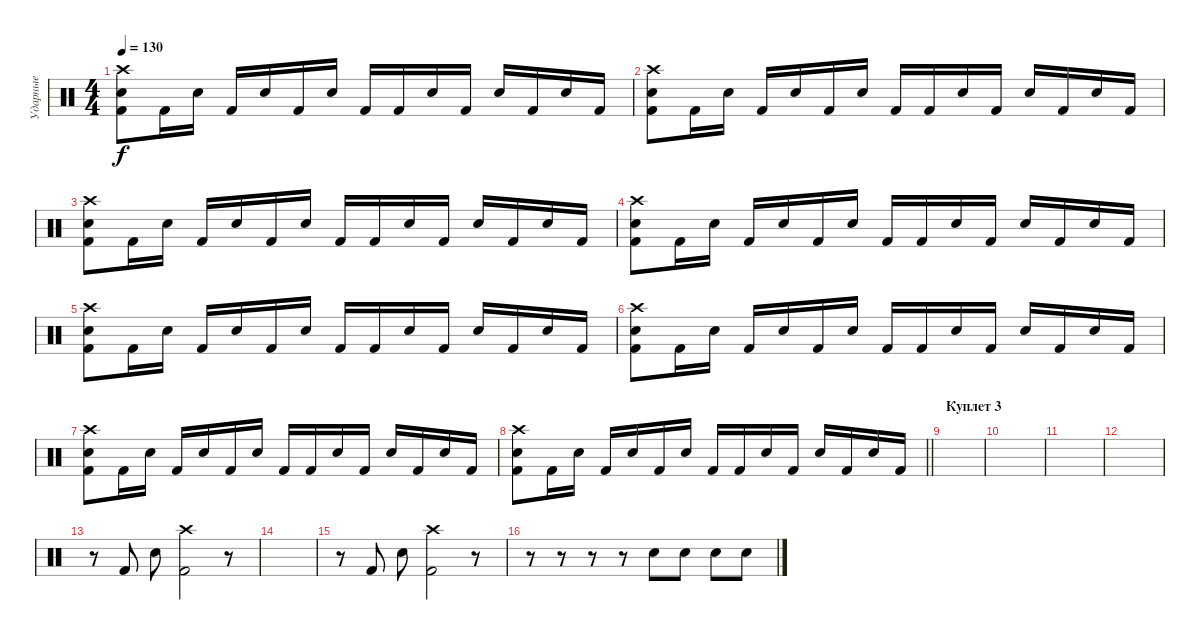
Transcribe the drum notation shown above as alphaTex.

\track ("Ударные" "Ударные") {instrument percussion}
\staff {score}
\articulation defaults
\ts (4 4)
\tempo 130
\clef neutral
\ks c
("Crash high (hit)" "Kick (hit) 2" "Snare (hit) 2").8{dy f} "Kick (hit) 2".16 "Snare (hit) 2".16 "Kick (hit) 2".16 "Snare (hit) 2".16 "Kick (hit) 2".16 "Snare (hit) 2".16 "Kick (hit) 2".16 "Kick (hit) 2".16 "Snare (hit) 2".16 "Kick (hit) 2".16 "Snare (hit) 2".16 "Kick (hit) 2".16 "Snare (hit) 2".16 "Kick (hit) 2".16 |
("Crash high (hit)" "Kick (hit) 2" "Snare (hit) 2").8 "Kick (hit) 2".16 "Snare (hit) 2".16 "Kick (hit) 2".16 "Snare (hit) 2".16 "Kick (hit) 2".16 "Snare (hit) 2".16 "Kick (hit) 2".16 "Kick (hit) 2".16 "Snare (hit) 2".16 "Kick (hit) 2".16 "Snare (hit) 2".16 "Kick (hit) 2".16 "Snare (hit) 2".16 "Kick (hit) 2".16 |
("Crash high (hit)" "Kick (hit) 2" "Snare (hit) 2").8 "Kick (hit) 2".16 "Snare (hit) 2".16 "Kick (hit) 2".16 "Snare (hit) 2".16 "Kick (hit) 2".16 "Snare (hit) 2".16 "Kick (hit) 2".16 "Kick (hit) 2".16 "Snare (hit) 2".16 "Kick (hit) 2".16 "Snare (hit) 2".16 "Kick (hit) 2".16 "Snare (hit) 2".16 "Kick (hit) 2".16 |
("Crash high (hit)" "Kick (hit) 2" "Snare (hit) 2").8 "Kick (hit) 2".16 "Snare (hit) 2".16 "Kick (hit) 2".16 "Snare (hit) 2".16 "Kick (hit) 2".16 "Snare (hit) 2".16 "Kick (hit) 2".16 "Kick (hit) 2".16 "Snare (hit) 2".16 "Kick (hit) 2".16 "Snare (hit) 2".16 "Kick (hit) 2".16 "Snare (hit) 2".16 "Kick (hit) 2".16 |
("Crash high (hit)" "Kick (hit) 2" "Snare (hit) 2").8 "Kick (hit) 2".16 "Snare (hit) 2".16 "Kick (hit) 2".16 "Snare (hit) 2".16 "Kick (hit) 2".16 "Snare (hit) 2".16 "Kick (hit) 2".16 "Kick (hit) 2".16 "Snare (hit) 2".16 "Kick (hit) 2".16 "Snare (hit) 2".16 "Kick (hit) 2".16 "Snare (hit) 2".16 "Kick (hit) 2".16 |
("Crash high (hit)" "Kick (hit) 2" "Snare (hit) 2").8 "Kick (hit) 2".16 "Snare (hit) 2".16 "Kick (hit) 2".16 "Snare (hit) 2".16 "Kick (hit) 2".16 "Snare (hit) 2".16 "Kick (hit) 2".16 "Kick (hit) 2".16 "Snare (hit) 2".16 "Kick (hit) 2".16 "Snare (hit) 2".16 "Kick (hit) 2".16 "Snare (hit) 2".16 "Kick (hit) 2".16 |
("Crash high (hit)" "Kick (hit) 2" "Snare (hit) 2").8 "Kick (hit) 2".16 "Snare (hit) 2".16 "Kick (hit) 2".16 "Snare (hit) 2".16 "Kick (hit) 2".16 "Snare (hit) 2".16 "Kick (hit) 2".16 "Kick (hit) 2".16 "Snare (hit) 2".16 "Kick (hit) 2".16 "Snare (hit) 2".16 "Kick (hit) 2".16 "Snare (hit) 2".16 "Kick (hit) 2".16 |
\barLineRight lightlight
("Crash high (hit)" "Kick (hit) 2" "Snare (hit) 2").8 "Kick (hit) 2".16 "Snare (hit) 2".16 "Kick (hit) 2".16 "Snare (hit) 2".16 "Kick (hit) 2".16 "Snare (hit) 2".16 "Kick (hit) 2".16 "Kick (hit) 2".16 "Snare (hit) 2".16 "Kick (hit) 2".16 "Snare (hit) 2".16 "Kick (hit) 2".16 "Snare (hit) 2".16 "Kick (hit) 2".16 |
\section ("" "Куплет 3")
|
|
|
|
r.8 "Kick (hit) 2".8 "Snare (hit) 2".8 ("Crash high (hit)" "Kick (hit) 2").2 r.8 |
|
r.8 "Kick (hit) 2".8 "Snare (hit) 2".8 ("Crash high (hit)" "Kick (hit) 2").2 r.8 |
r.8 r.8 r.8 r.8 "Snare (hit) 2".8 "Snare (hit) 2".8 "Snare (hit) 2".8 "Snare (hit) 2".8
